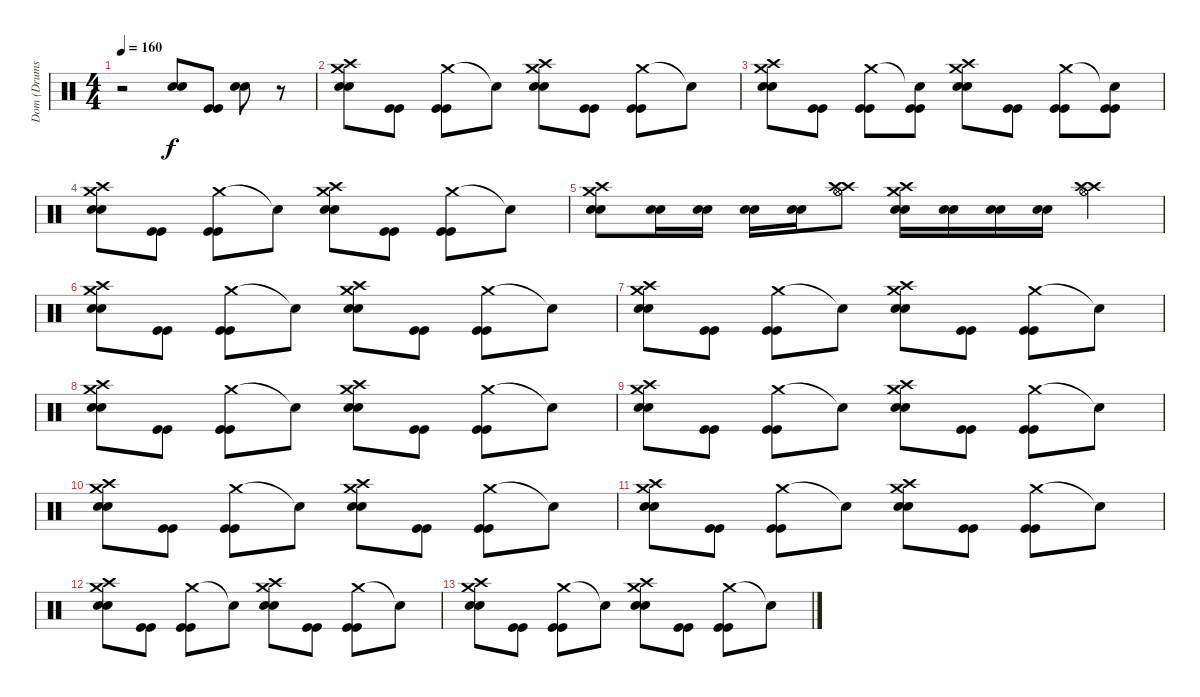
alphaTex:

\track ("Dom (Drums)" "Dom (Drums") {instrument percussion}
\staff {score}
\articulation defaults
\ts (4 4)
\tempo 160
\clef neutral
\ks c
r.2{dy f} ("Snare (hit) 2" "Snare (hit) 2").8 ("Kick (hit)" "Kick (hit)").8 ("Snare (hit) 2" "Snare (hit) 2").8 r.8 |
("Crash medium (hit)" "Crash high (hit)" "Snare (hit) 2" "Snare (hit) 2").8 ("Kick (hit)" "Kick (hit)").8 ("Crash medium (hit)" "Kick (hit)" "Kick (hit)").8 "Snare (hit)"{t}.8 ("Crash medium (hit)" "Crash high (hit)" "Snare (hit) 2" "Snare (hit) 2").8 ("Kick (hit)" "Kick (hit)").8 ("Crash medium (hit)" "Kick (hit)" "Kick (hit)").8 "Snare (hit)"{t}.8 |
("Crash medium (hit)" "Crash high (hit)" "Snare (hit) 2" "Snare (hit) 2").8 ("Kick (hit)" "Kick (hit)").8 ("Crash medium (hit)" "Kick (hit)" "Kick (hit)").8 ("Snare (hit)"{t} "Kick (hit)" "Kick (hit)").8 ("Crash medium (hit)" "Crash high (hit)" "Snare (hit) 2" "Snare (hit) 2").8 ("Kick (hit)" "Kick (hit)").8 ("Crash medium (hit)" "Kick (hit)" "Kick (hit)").8 ("Snare (hit)"{t} "Kick (hit)" "Kick (hit)").8 |
("Crash medium (hit)" "Crash high (hit)" "Snare (hit) 2" "Snare (hit) 2").8 ("Kick (hit)" "Kick (hit)").8 ("Crash medium (hit)" "Kick (hit)" "Kick (hit)").8 "Snare (hit)"{t}.8 ("Crash medium (hit)" "Crash high (hit)" "Snare (hit) 2" "Snare (hit) 2").8 ("Kick (hit)" "Kick (hit)").8 ("Crash medium (hit)" "Kick (hit)" "Kick (hit)").8 "Snare (hit)"{t}.8 |
("Crash medium (hit)" "Crash high (hit)" "Snare (hit) 2" "Snare (hit) 2").8 ("Snare (hit) 2" "Snare (hit) 2").16 ("Snare (hit) 2" "Snare (hit) 2").16 ("Snare (hit) 2" "Snare (hit) 2").16 ("Snare (hit) 2" "Snare (hit) 2").16 ("Crash high (hit)" "Crash high (hit)" "Hi-Hat (open)" "Hi-Hat (open)").8 ("Crash medium (hit)" "Crash high (hit)" "Snare (hit) 2" "Snare (hit) 2").16 ("Snare (hit) 2" "Snare (hit) 2").16 ("Snare (hit) 2" "Snare (hit) 2").16 ("Snare (hit) 2" "Snare (hit) 2").16 ("Crash high (hit)" "Crash high (hit)" "Hi-Hat (open)" "Hi-Hat (open)").4 |
("Crash medium (hit)" "Crash high (hit)" "Snare (hit) 2" "Snare (hit) 2").8 ("Kick (hit)" "Kick (hit)").8 ("Crash medium (hit)" "Kick (hit)" "Kick (hit)").8 "Snare (hit)"{t}.8 ("Crash medium (hit)" "Crash high (hit)" "Snare (hit) 2" "Snare (hit) 2").8 ("Kick (hit)" "Kick (hit)").8 ("Crash medium (hit)" "Kick (hit)" "Kick (hit)").8 "Snare (hit)"{t}.8 |
("Crash medium (hit)" "Crash high (hit)" "Snare (hit) 2" "Snare (hit) 2").8 ("Kick (hit)" "Kick (hit)").8 ("Crash medium (hit)" "Kick (hit)" "Kick (hit)").8 "Snare (hit)"{t}.8 ("Crash medium (hit)" "Crash high (hit)" "Snare (hit) 2" "Snare (hit) 2").8 ("Kick (hit)" "Kick (hit)").8 ("Crash medium (hit)" "Kick (hit)" "Kick (hit)").8 "Snare (hit)"{t}.8 |
("Crash medium (hit)" "Crash high (hit)" "Snare (hit) 2" "Snare (hit) 2").8 ("Kick (hit)" "Kick (hit)").8 ("Crash medium (hit)" "Kick (hit)" "Kick (hit)").8 "Snare (hit)"{t}.8 ("Crash medium (hit)" "Crash high (hit)" "Snare (hit) 2" "Snare (hit) 2").8 ("Kick (hit)" "Kick (hit)").8 ("Crash medium (hit)" "Kick (hit)" "Kick (hit)").8 "Snare (hit)"{t}.8 |
("Crash medium (hit)" "Crash high (hit)" "Snare (hit) 2" "Snare (hit) 2").8 ("Kick (hit)" "Kick (hit)").8 ("Crash medium (hit)" "Kick (hit)" "Kick (hit)").8 "Snare (hit)"{t}.8 ("Crash medium (hit)" "Crash high (hit)" "Snare (hit) 2" "Snare (hit) 2").8 ("Kick (hit)" "Kick (hit)").8 ("Crash medium (hit)" "Kick (hit)" "Kick (hit)").8 "Snare (hit)"{t}.8 |
("Crash medium (hit)" "Crash high (hit)" "Snare (hit) 2" "Snare (hit) 2").8 ("Kick (hit)" "Kick (hit)").8 ("Crash medium (hit)" "Kick (hit)" "Kick (hit)").8 "Snare (hit)"{t}.8 ("Crash medium (hit)" "Crash high (hit)" "Snare (hit) 2" "Snare (hit) 2").8 ("Kick (hit)" "Kick (hit)").8 ("Crash medium (hit)" "Kick (hit)" "Kick (hit)").8 "Snare (hit)"{t}.8 |
("Crash medium (hit)" "Crash high (hit)" "Snare (hit) 2" "Snare (hit) 2").8 ("Kick (hit)" "Kick (hit)").8 ("Crash medium (hit)" "Kick (hit)" "Kick (hit)").8 "Snare (hit)"{t}.8 ("Crash medium (hit)" "Crash high (hit)" "Snare (hit) 2" "Snare (hit) 2").8 ("Kick (hit)" "Kick (hit)").8 ("Crash medium (hit)" "Kick (hit)" "Kick (hit)").8 "Snare (hit)"{t}.8 |
("Crash medium (hit)" "Crash high (hit)" "Snare (hit) 2" "Snare (hit) 2").8 ("Kick (hit)" "Kick (hit)").8 ("Crash medium (hit)" "Kick (hit)" "Kick (hit)").8 "Snare (hit)"{t}.8 ("Crash medium (hit)" "Crash high (hit)" "Snare (hit) 2" "Snare (hit) 2").8 ("Kick (hit)" "Kick (hit)").8 ("Crash medium (hit)" "Kick (hit)" "Kick (hit)").8 "Snare (hit)"{t}.8 |
("Crash medium (hit)" "Crash high (hit)" "Snare (hit) 2" "Snare (hit) 2").8 ("Kick (hit)" "Kick (hit)").8 ("Crash medium (hit)" "Kick (hit)" "Kick (hit)").8 "Snare (hit)"{t}.8 ("Crash medium (hit)" "Crash high (hit)" "Snare (hit) 2" "Snare (hit) 2").8 ("Kick (hit)" "Kick (hit)").8 ("Crash medium (hit)" "Kick (hit)" "Kick (hit)").8 "Snare (hit)"{t}.8
